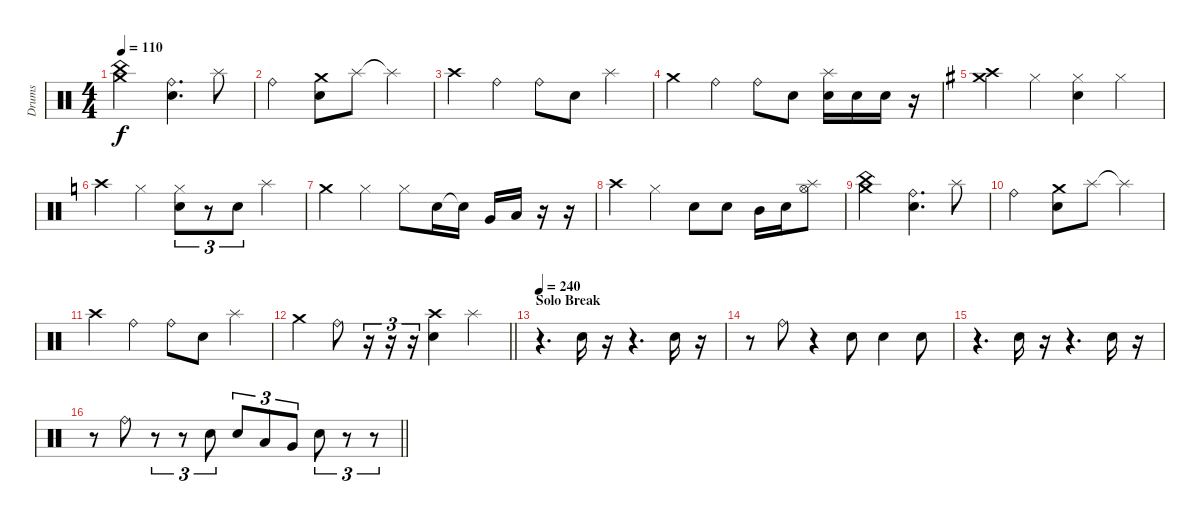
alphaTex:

\track ("Drums" "Drums") {instrument percussion}
\staff {score}
\articulation defaults
\ts (4 4)
\tempo 110
\clef neutral
\ks c
("China (hit)" "Crash medium (hit)").2{dy f} ("Ride (bell)" "Electric Snare (hit)").4{d} "Splash (hit)".8 |
"Ride (bell)".2 ("Crash medium (hit)" "Electric Snare (hit)").8 "Splash (hit)".8 "Splash (hit)"{t}.4 |
"Crash high (hit)".4 "Ride (bell)".4 "Ride (bell)".8 "Electric Snare (hit)".8 "Splash (hit)".4 |
"Crash medium (hit)".4 "Ride (bell)".4 "Ride (bell)".8 "Electric Snare (hit)".8 ("Splash (hit)" "Electric Snare (hit)").16 "Electric Snare (hit)".16 "Electric Snare (hit)".16 r.16 |
\ks g
("Crash medium (hit)" "Crash high (hit)").4 "Hi-Hat (closed)".4 ("Hi-Hat (closed)" "Electric Snare (hit)").4 "Hi-Hat (closed)".4 |
\ks c "Crash high (hit)".4 "Hi-Hat (closed)".4
("Hi-Hat (closed)" "Electric Snare (hit)").8{tu (3 2)} r.8{tu (3 2)} "Electric Snare (hit)".8{tu (3 2)} "Splash (hit)".4 |
"Crash medium (hit)".4 "Hi-Hat (closed)".4 "Hi-Hat (closed)".8 "Electric Snare (hit)".16 "Electric Snare (hit)"{t}.16 "Very Low Tom (hit)".16 "Low Floor Tom (hit)".16 r.16 r.16 |
"Crash high (hit)".4 "Hi-Hat (closed)".4 "Electric Snare (hit)".8 "Electric Snare (hit)".8 "Mid Tom (hit)".16 "Electric Snare (hit)".16 ("Splash (hit)" "Hi-Hat (open)").8 |
("China (hit)" "Crash medium (hit)").2 ("Ride (bell)" "Electric Snare (hit)").4{d} "Splash (hit)".8 |
"Ride (bell)".2 ("Crash medium (hit)" "Electric Snare (hit)").8 "Splash (hit)".8 "Splash (hit)"{t}.4 |
"Crash high (hit)".4 "Ride (bell)".4 "Ride (bell)".8 "Electric Snare (hit)".8 "Splash (hit)".4 |
\barLineRight lightlight "Crash medium (hit)".4 "Ride (bell)".8
r.16{tu (3 2)} r.16{tu (3 2)} r.16{tu (3 2)} ("Crash high (hit)" "Electric Snare (hit)").4 "Splash (hit)".4 |
\section ("" "Solo Break")
\tempo 240
r.4{d} "Electric Snare (hit)".16 r.16 r.4{d} "Electric Snare (hit)".16 r.16 |
r.8 "Ride (bell)".8 r.4 "Electric Snare (hit)".8 "Electric Snare (hit)".4 "Electric Snare (hit)".8 |
r.4{d} "Electric Snare (hit)".16 r.16 r.4{d} "Electric Snare (hit)".16 r.16 |
\barLineRight lightlight
r.8 "Ride (bell)".8 r.8{tu (3 2)} r.8{tu (3 2)} "Electric Snare (hit)".8{tu (3 2)} "Electric Snare (hit)".8{tu (3 2)} "Low Tom (hit)".8{tu (3 2)} "Very Low Tom (hit)".8{tu (3 2)} "Electric Snare (hit)".8{tu (3 2)} r.8{tu (3 2)} r.8{tu (3 2)}
